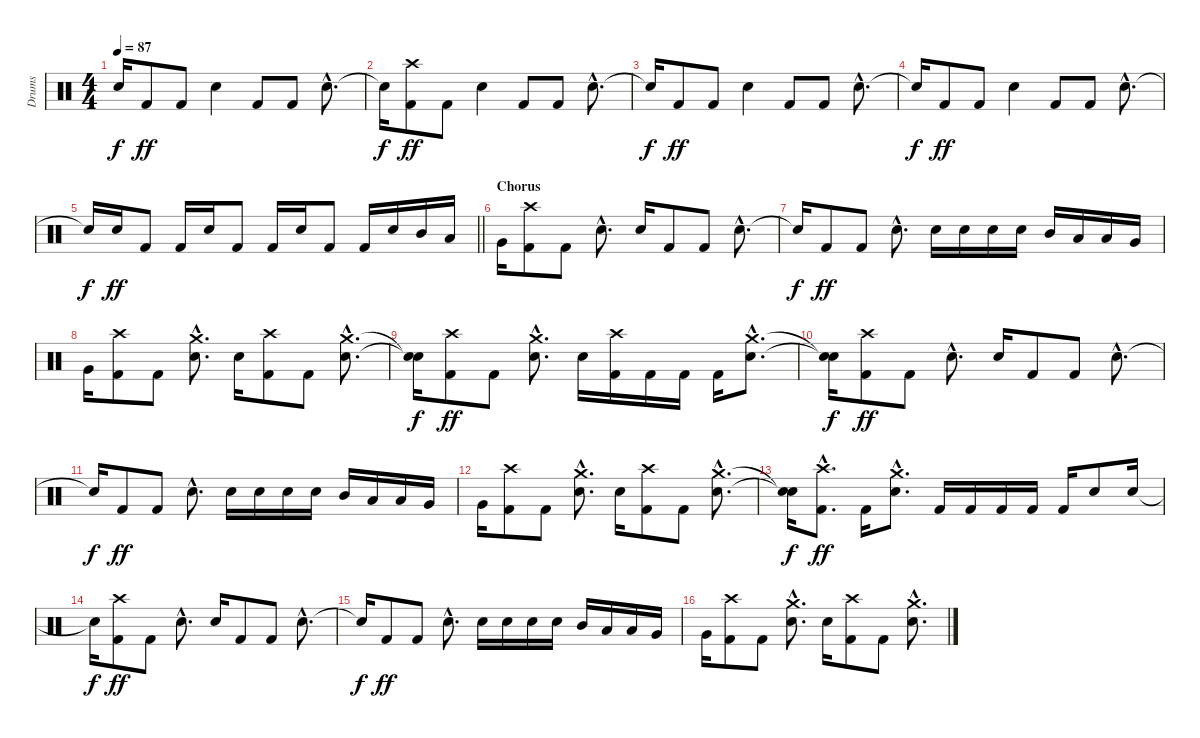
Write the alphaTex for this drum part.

\track ("Drums" "Drums") {instrument percussion}
\staff {score}
\articulation defaults
\ts (4 4)
\tempo 87
\clef neutral
\ks c "Snare (hit)"{t}.16{dy f} "Kick (hit) 2".8{dy ff} "Kick (hit) 2".8 "Electric Snare (hit)".4 "Kick (hit) 2".8 "Kick (hit) 2".8 "Electric Snare (hit)"{hac}.8{d}
|
"Snare (hit)"{t}.16{dy f} ("Kick (hit) 2" "Crash high (hit)").8{dy ff} "Kick (hit) 2".8 "Electric Snare (hit)".4 "Kick (hit) 2".8 "Kick (hit) 2".8 "Electric Snare (hit)"{hac}.8{d} |
"Snare (hit)"{t}.16{dy f} "Kick (hit) 2".8{dy ff} "Kick (hit) 2".8 "Electric Snare (hit)".4 "Kick (hit) 2".8 "Kick (hit) 2".8 "Electric Snare (hit)"{hac}.8{d} |
"Snare (hit)"{t}.16{dy f} "Kick (hit) 2".8{dy ff} "Kick (hit) 2".8 "Electric Snare (hit)".4 "Kick (hit) 2".8 "Kick (hit) 2".8 "Electric Snare (hit)"{hac}.8{d} |
\barLineRight lightlight "Snare (hit)"{t}.16{dy f} "Electric Snare (hit)".16{dy ff} "Kick (hit) 2".8 "Kick (hit) 2".16 "Electric Snare (hit)".16 "Kick (hit) 2".8 "Kick (hit) 2".16 "Electric Snare (hit)".16 "Kick (hit) 2".8 "Kick (hit) 2".16 "Electric Snare (hit)".16 "Mid Tom (hit)".16 "Low Tom (hit)".16
|
\section ("" "Chorus")
"Very Low Tom (hit)".16 ("Kick (hit) 2" "Crash high (hit)").8 "Kick (hit) 2".8 "Electric Snare (hit)"{hac}.8{d} "Electric Snare (hit)".16 "Kick (hit) 2".8 "Kick (hit) 2".8 "Electric Snare (hit)"{hac}.8{d} |
"Snare (hit)"{t}.16{dy f} "Kick (hit) 2".8{dy ff} "Kick (hit) 2".8 "Electric Snare (hit)"{hac}.8{d} "Electric Snare (hit)".16 "Electric Snare (hit)".16 "Electric Snare (hit)".16 "Electric Snare (hit)".16 "Mid Tom (hit)".16 "Low Tom (hit)".16 "Low Tom (hit)".16 "Very Low Tom (hit)".16 |
"Very Low Tom (hit)".16 ("Kick (hit) 2" "Crash high (hit)").8 "Kick (hit) 2".8 ("Electric Snare (hit)"{hac} "Crash medium (hit)"{hac}).8{d} "Electric Snare (hit)".16 ("Kick (hit) 2" "Crash high (hit)").8 "Kick (hit) 2".8 ("Electric Snare (hit)"{hac} "Crash medium (hit)"{hac}).8{d} |
("Snare (hit)"{t} "Snare (hit)"{t}).16{dy f} ("Kick (hit) 2" "Crash high (hit)").8{dy ff} "Kick (hit) 2".8 ("Electric Snare (hit)"{hac} "Crash medium (hit)"{hac}).8{d} "Electric Snare (hit)".16 ("Kick (hit) 2" "Crash high (hit)").16 "Kick (hit) 2".16 "Kick (hit) 2".16 "Kick (hit) 2".16 ("Electric Snare (hit)"{hac} "Crash medium (hit)"{hac}).8{d} |
("Snare (hit)"{t} "Snare (hit)"{t}).16{dy f} ("Kick (hit) 2" "Crash high (hit)").8{dy ff} "Kick (hit) 2".8 "Electric Snare (hit)"{hac}.8{d} "Electric Snare (hit)".16 "Kick (hit) 2".8 "Kick (hit) 2".8 "Electric Snare (hit)"{hac}.8{d} |
"Snare (hit)"{t}.16{dy f} "Kick (hit) 2".8{dy ff} "Kick (hit) 2".8 "Electric Snare (hit)"{hac}.8{d} "Electric Snare (hit)".16 "Electric Snare (hit)".16 "Electric Snare (hit)".16 "Electric Snare (hit)".16 "Mid Tom (hit)".16 "Low Tom (hit)".16 "Low Tom (hit)".16 "Very Low Tom (hit)".16 |
"Very Low Tom (hit)".16 ("Kick (hit) 2" "Crash high (hit)").8 "Kick (hit) 2".8 ("Electric Snare (hit)"{hac} "Crash medium (hit)"{hac}).8{d} "Electric Snare (hit)".16 ("Kick (hit) 2" "Crash high (hit)").8 "Kick (hit) 2".8 ("Electric Snare (hit)"{hac} "Crash medium (hit)"{hac}).8{d} |
("Snare (hit)"{t} "Snare (hit)"{t}).16{dy f} ("Kick (hit) 2"{hac} "Crash high (hit)"{hac}).8{d dy ff} "Kick (hit) 2".16 ("Electric Snare (hit)"{hac} "Crash medium (hit)"{hac}).8{d} "Kick (hit) 2".16 "Kick (hit) 2".16 "Kick (hit) 2".16 "Kick (hit) 2".16 "Kick (hit) 2".16 "Electric Snare (hit)".8 "Electric Snare (hit)".16 |
"Snare (hit)"{t}.16{dy f} ("Kick (hit) 2" "Crash high (hit)").8{dy ff} "Kick (hit) 2".8 "Electric Snare (hit)"{hac}.8{d} "Electric Snare (hit)".16 "Kick (hit) 2".8 "Kick (hit) 2".8 "Electric Snare (hit)"{hac}.8{d} |
"Snare (hit)"{t}.16{dy f} "Kick (hit) 2".8{dy ff} "Kick (hit) 2".8 "Electric Snare (hit)"{hac}.8{d} "Electric Snare (hit)".16 "Electric Snare (hit)".16 "Electric Snare (hit)".16 "Electric Snare (hit)".16 "Mid Tom (hit)".16 "Low Tom (hit)".16 "Low Tom (hit)".16 "Very Low Tom (hit)".16 |
"Very Low Tom (hit)".16 ("Kick (hit) 2" "Crash high (hit)").8 "Kick (hit) 2".8 ("Electric Snare (hit)"{hac} "Crash medium (hit)"{hac}).8{d} "Electric Snare (hit)".16 ("Kick (hit) 2" "Crash high (hit)").8 "Kick (hit) 2".8 ("Electric Snare (hit)"{hac} "Crash medium (hit)"{hac}).8{d}
